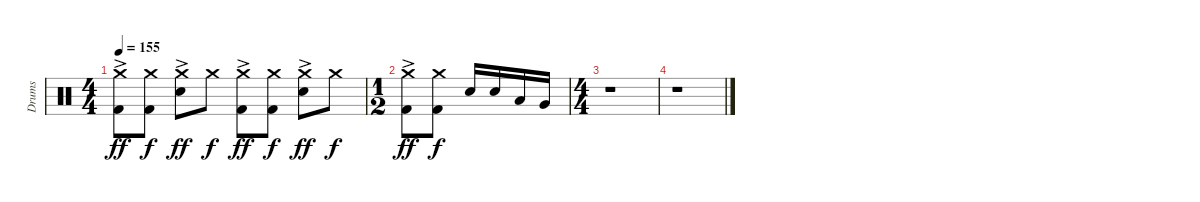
\track ("Drums" "Drums") {instrument percussion}
\staff {score}
\articulation defaults
\ts (4 4)
\tempo 155
\clef neutral
\ks c
("Crash medium (hit)"{ac} "Kick (hit) 2").8{dy ff} ("Crash medium (hit)" "Kick (hit) 2").8{dy f} ("Crash medium (hit)"{ac} "Electric Snare (hit)").8{dy ff} "Crash medium (hit)".8{dy f} ("Crash medium (hit)"{ac} "Kick (hit) 2").8{dy ff} ("Crash medium (hit)" "Kick (hit) 2").8{dy f} ("Crash medium (hit)"{ac} "Electric Snare (hit)").8{dy ff} "Crash medium (hit)".8{dy f} |
\ts (1 2)
("Crash medium (hit)"{ac} "Kick (hit) 2").8{dy ff} ("Crash medium (hit)" "Kick (hit) 2").8{dy f} "Electric Snare (hit)".16 "Electric Snare (hit)".16 "Low Tom (hit)".16 "Very Low Tom (hit)".16 |
\ts (4 4)
r.1 |
r.1
